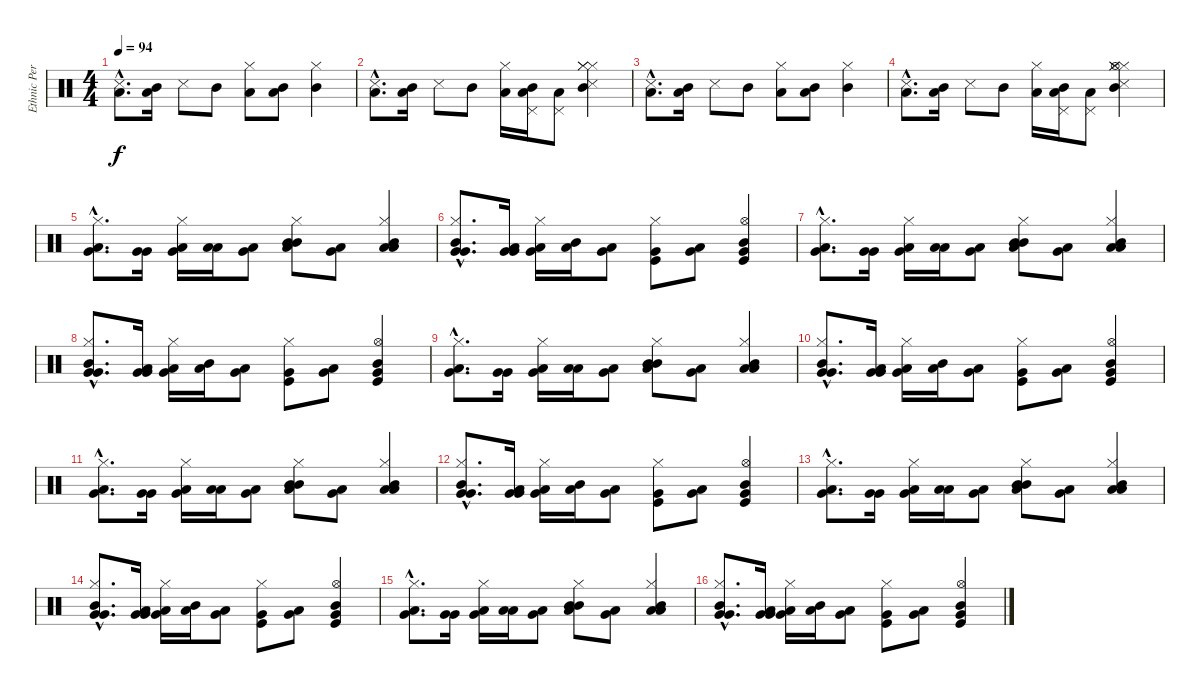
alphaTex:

\track ("Ethnic Percussion" "Ethnic Per") {instrument percussion}
\staff {score}
\articulation defaults
\ts (4 4)
\tempo 94
\clef neutral
\ks c
("Low Tom (hit)"{hac} "Snare (side stick) 3"{hac}).8{d dy f} ("Low Tom (hit)" "Mid Tom (hit)").16 "Snare (side stick) 3".8 "Mid Tom (hit)".8 ("Low Tom (hit)" "Hi-Hat (closed)").8 ("Low Tom (hit)" "Mid Tom (hit)").8 ("Mid Tom (hit)" "Hi-Hat (closed)").4 |
("Low Tom (hit)"{hac} "Snare (side stick) 3"{hac}).8{d} ("Low Tom (hit)" "Mid Tom (hit)").16 "Snare (side stick) 3".8 "Mid Tom (hit)".8 ("Low Tom (hit)" "Hi-Hat (closed)").16 ("Low Tom (hit)" "Pedal Hi-Hat (hit)" "Mid Tom (hit)").16 ("Low Tom (hit)" "Pedal Hi-Hat (hit)").8 ("Snare (side stick) 3" "Mid Tom (hit)" "Hi-Hat (closed)" "Hi-Hat (closed)" "Hi-Hat (closed)").4 |
("Low Tom (hit)"{hac} "Snare (side stick) 3"{hac}).8{d} ("Low Tom (hit)" "Mid Tom (hit)").16 "Snare (side stick) 3".8 "Mid Tom (hit)".8 ("Low Tom (hit)" "Hi-Hat (closed)").8 ("Low Tom (hit)" "Mid Tom (hit)").8 ("Mid Tom (hit)" "Hi-Hat (closed)").4 |
("Low Tom (hit)"{hac} "Snare (side stick) 3"{hac}).8{d} ("Low Tom (hit)" "Mid Tom (hit)").16 "Snare (side stick) 3".8 "Mid Tom (hit)".8 ("Low Tom (hit)" "Hi-Hat (closed)").16 ("Low Tom (hit)" "Pedal Hi-Hat (hit)" "Mid Tom (hit)").16 ("Low Tom (hit)" "Pedal Hi-Hat (hit)").8 ("Snare (side stick) 3" "Mid Tom (hit)" "Hi-Hat (closed)" "Hi-Hat (closed)" "Hi-Hat (closed)" "Hi-Hat (open)").4 |
("Very Low Tom (hit)"{hac} "Low Floor Tom (hit)"{hac} "Hi-Hat (closed)"{hac}).8{d} ("Very Low Tom (hit)" "Very Low Tom (hit)").16 ("Very Low Tom (hit)" "Low Floor Tom (hit)" "Hi-Hat (closed)").16 ("Low Tom (hit)" "Low Tom (hit)").16 ("Very Low Tom (hit)" "Low Floor Tom (hit)").8 ("Mid Tom (hit)" "Low Tom (hit)" "Mid Tom (hit)" "Hi-Hat (closed)").8 ("Low Tom (hit)" "Very Low Tom (hit)").8 ("Mid Tom (hit)" "Low Floor Tom (hit)" "Low Tom (hit)" "Hi-Hat (closed)").4 |
("Very Low Tom (hit)"{hac} "Very Low Tom (hit)"{hac} "Mid Tom (hit)"{hac} "Hi-Hat (closed)"{hac}).8{d} ("Very Low Tom (hit)" "Very Low Tom (hit)" "Low Floor Tom (hit)").16 ("Very Low Tom (hit)" "Low Floor Tom (hit)" "Hi-Hat (closed)").16 ("Mid Tom (hit)" "Low Tom (hit)").16 ("Very Low Tom (hit)" "Low Tom (hit)").8 ("Kick (hit)" "Very Low Tom (hit)" "Hi-Hat (closed)").8 ("Low Tom (hit)" "Very Low Tom (hit)").8 ("Very Low Tom (hit)" "Kick (hit)" "Hi-Hat (open)" "Mid Tom (hit)").4 |
("Very Low Tom (hit)"{hac} "Low Floor Tom (hit)"{hac} "Hi-Hat (closed)"{hac}).8{d} ("Very Low Tom (hit)" "Very Low Tom (hit)").16 ("Very Low Tom (hit)" "Low Floor Tom (hit)" "Hi-Hat (closed)").16 ("Low Tom (hit)" "Low Tom (hit)").16 ("Very Low Tom (hit)" "Low Floor Tom (hit)").8 ("Mid Tom (hit)" "Low Tom (hit)" "Mid Tom (hit)" "Hi-Hat (closed)").8 ("Low Tom (hit)" "Very Low Tom (hit)").8 ("Mid Tom (hit)" "Low Floor Tom (hit)" "Low Tom (hit)" "Hi-Hat (closed)").4 |
("Very Low Tom (hit)"{hac} "Very Low Tom (hit)"{hac} "Mid Tom (hit)"{hac} "Hi-Hat (closed)"{hac}).8{d} ("Very Low Tom (hit)" "Very Low Tom (hit)" "Low Floor Tom (hit)").16 ("Very Low Tom (hit)" "Low Floor Tom (hit)" "Hi-Hat (closed)").16 ("Mid Tom (hit)" "Low Tom (hit)").16 ("Very Low Tom (hit)" "Low Tom (hit)").8 ("Kick (hit)" "Very Low Tom (hit)" "Hi-Hat (closed)").8 ("Low Tom (hit)" "Very Low Tom (hit)").8 ("Very Low Tom (hit)" "Kick (hit)" "Hi-Hat (open)" "Mid Tom (hit)").4 |
("Very Low Tom (hit)"{hac} "Low Floor Tom (hit)"{hac} "Hi-Hat (closed)"{hac}).8{d} ("Very Low Tom (hit)" "Very Low Tom (hit)").16 ("Very Low Tom (hit)" "Low Floor Tom (hit)" "Hi-Hat (closed)").16 ("Low Tom (hit)" "Low Tom (hit)").16 ("Very Low Tom (hit)" "Low Floor Tom (hit)").8 ("Mid Tom (hit)" "Low Tom (hit)" "Mid Tom (hit)" "Hi-Hat (closed)").8 ("Low Tom (hit)" "Very Low Tom (hit)").8 ("Mid Tom (hit)" "Low Floor Tom (hit)" "Low Tom (hit)" "Hi-Hat (closed)").4 |
("Very Low Tom (hit)"{hac} "Very Low Tom (hit)"{hac} "Mid Tom (hit)"{hac} "Hi-Hat (closed)"{hac}).8{d} ("Very Low Tom (hit)" "Very Low Tom (hit)" "Low Floor Tom (hit)").16 ("Very Low Tom (hit)" "Low Floor Tom (hit)" "Hi-Hat (closed)").16 ("Mid Tom (hit)" "Low Tom (hit)").16 ("Very Low Tom (hit)" "Low Tom (hit)").8 ("Kick (hit)" "Very Low Tom (hit)" "Hi-Hat (closed)").8 ("Low Tom (hit)" "Very Low Tom (hit)").8 ("Very Low Tom (hit)" "Kick (hit)" "Hi-Hat (open)" "Mid Tom (hit)").4 |
("Very Low Tom (hit)"{hac} "Low Floor Tom (hit)"{hac} "Hi-Hat (closed)"{hac}).8{d} ("Very Low Tom (hit)" "Very Low Tom (hit)").16 ("Very Low Tom (hit)" "Low Floor Tom (hit)" "Hi-Hat (closed)").16 ("Low Tom (hit)" "Low Tom (hit)").16 ("Very Low Tom (hit)" "Low Floor Tom (hit)").8 ("Mid Tom (hit)" "Low Tom (hit)" "Mid Tom (hit)" "Hi-Hat (closed)").8 ("Low Tom (hit)" "Very Low Tom (hit)").8 ("Mid Tom (hit)" "Low Floor Tom (hit)" "Low Tom (hit)" "Hi-Hat (closed)").4 |
("Very Low Tom (hit)"{hac} "Very Low Tom (hit)"{hac} "Mid Tom (hit)"{hac} "Hi-Hat (closed)"{hac}).8{d} ("Very Low Tom (hit)" "Very Low Tom (hit)" "Low Floor Tom (hit)").16 ("Very Low Tom (hit)" "Low Floor Tom (hit)" "Hi-Hat (closed)").16 ("Mid Tom (hit)" "Low Tom (hit)").16 ("Very Low Tom (hit)" "Low Tom (hit)").8 ("Kick (hit)" "Very Low Tom (hit)" "Hi-Hat (closed)").8 ("Low Tom (hit)" "Very Low Tom (hit)").8 ("Very Low Tom (hit)" "Kick (hit)" "Hi-Hat (open)" "Mid Tom (hit)").4 |
("Very Low Tom (hit)"{hac} "Low Floor Tom (hit)"{hac} "Hi-Hat (closed)"{hac}).8{d} ("Very Low Tom (hit)" "Very Low Tom (hit)").16 ("Very Low Tom (hit)" "Low Floor Tom (hit)" "Hi-Hat (closed)").16 ("Low Tom (hit)" "Low Tom (hit)").16 ("Very Low Tom (hit)" "Low Floor Tom (hit)").8 ("Mid Tom (hit)" "Low Tom (hit)" "Mid Tom (hit)" "Hi-Hat (closed)").8 ("Low Tom (hit)" "Very Low Tom (hit)").8 ("Mid Tom (hit)" "Low Floor Tom (hit)" "Low Tom (hit)" "Hi-Hat (closed)").4 |
("Very Low Tom (hit)"{hac} "Very Low Tom (hit)"{hac} "Mid Tom (hit)"{hac} "Hi-Hat (closed)"{hac}).8{d} ("Very Low Tom (hit)" "Very Low Tom (hit)" "Low Floor Tom (hit)").16 ("Very Low Tom (hit)" "Low Floor Tom (hit)" "Hi-Hat (closed)").16 ("Mid Tom (hit)" "Low Tom (hit)").16 ("Very Low Tom (hit)" "Low Tom (hit)").8 ("Kick (hit)" "Very Low Tom (hit)" "Hi-Hat (closed)").8 ("Low Tom (hit)" "Very Low Tom (hit)").8 ("Very Low Tom (hit)" "Kick (hit)" "Hi-Hat (open)" "Mid Tom (hit)").4 |
("Very Low Tom (hit)"{hac} "Low Floor Tom (hit)"{hac} "Hi-Hat (closed)"{hac}).8{d} ("Very Low Tom (hit)" "Very Low Tom (hit)").16 ("Very Low Tom (hit)" "Low Floor Tom (hit)" "Hi-Hat (closed)").16 ("Low Tom (hit)" "Low Tom (hit)").16 ("Very Low Tom (hit)" "Low Floor Tom (hit)").8 ("Mid Tom (hit)" "Low Tom (hit)" "Mid Tom (hit)" "Hi-Hat (closed)").8 ("Low Tom (hit)" "Very Low Tom (hit)").8 ("Mid Tom (hit)" "Low Floor Tom (hit)" "Low Tom (hit)" "Hi-Hat (closed)").4 |
("Very Low Tom (hit)"{hac} "Very Low Tom (hit)"{hac} "Mid Tom (hit)"{hac} "Hi-Hat (closed)"{hac}).8{d} ("Very Low Tom (hit)" "Very Low Tom (hit)" "Low Floor Tom (hit)").16 ("Very Low Tom (hit)" "Low Floor Tom (hit)" "Hi-Hat (closed)").16 ("Mid Tom (hit)" "Low Tom (hit)").16 ("Very Low Tom (hit)" "Low Tom (hit)").8 ("Kick (hit)" "Very Low Tom (hit)" "Hi-Hat (closed)").8 ("Low Tom (hit)" "Very Low Tom (hit)").8 ("Very Low Tom (hit)" "Kick (hit)" "Hi-Hat (open)" "Mid Tom (hit)").4
